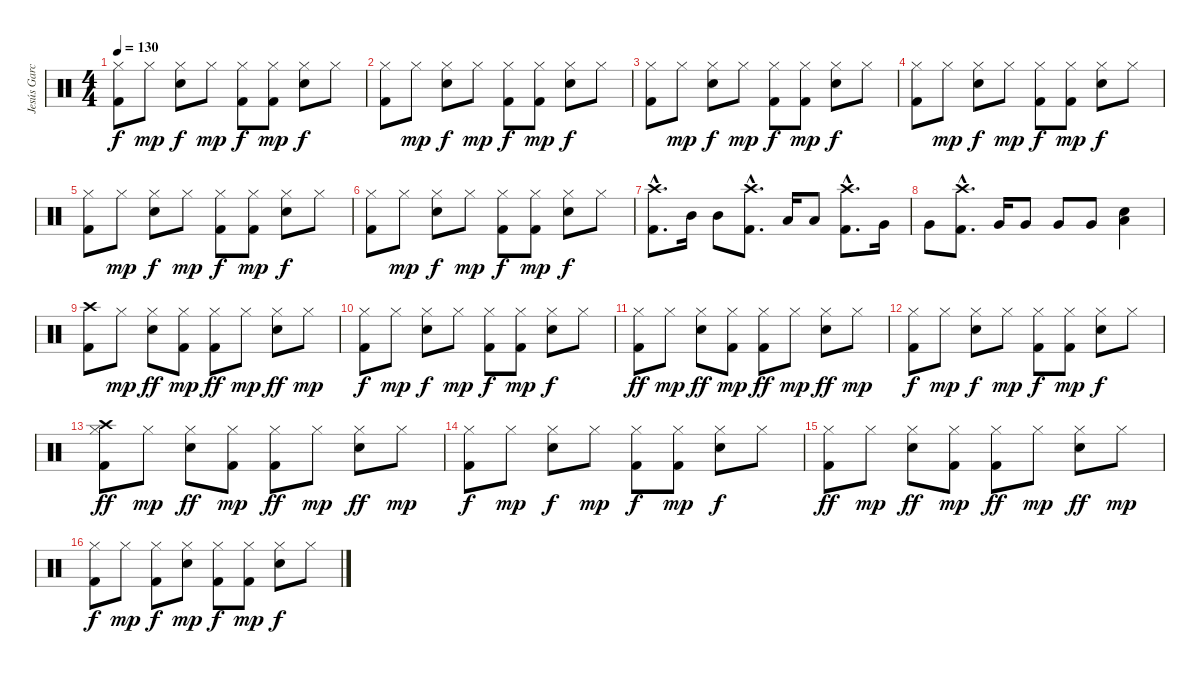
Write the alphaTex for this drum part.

\track ("Jesús García (batería)" "Jesús Garc") {instrument percussion}
\staff {score}
\articulation defaults
\ts (4 4)
\tempo 130
\clef neutral
\ks c
("Hi-Hat (closed)" "Kick (hit) 2").8{dy f} "Hi-Hat (closed)".8{dy mp} ("Hi-Hat (closed)" "Electric Snare (hit)").8{dy f} "Hi-Hat (closed)".8{dy mp} ("Hi-Hat (closed)" "Kick (hit) 2").8{dy f} ("Hi-Hat (closed)" "Kick (hit) 2").8{dy mp} ("Hi-Hat (closed)" "Electric Snare (hit)").8{dy f} "Hi-Hat (closed)".8 |
("Hi-Hat (closed)" "Kick (hit) 2").8 "Hi-Hat (closed)".8{dy mp} ("Hi-Hat (closed)" "Electric Snare (hit)").8{dy f} "Hi-Hat (closed)".8{dy mp} ("Hi-Hat (closed)" "Kick (hit) 2").8{dy f} ("Hi-Hat (closed)" "Kick (hit) 2").8{dy mp} ("Hi-Hat (closed)" "Electric Snare (hit)").8{dy f} "Hi-Hat (closed)".8 |
("Hi-Hat (closed)" "Kick (hit) 2").8 "Hi-Hat (closed)".8{dy mp} ("Hi-Hat (closed)" "Electric Snare (hit)").8{dy f} "Hi-Hat (closed)".8{dy mp} ("Hi-Hat (closed)" "Kick (hit) 2").8{dy f} ("Hi-Hat (closed)" "Kick (hit) 2").8{dy mp} ("Hi-Hat (closed)" "Electric Snare (hit)").8{dy f} "Hi-Hat (closed)".8 |
("Hi-Hat (closed)" "Kick (hit) 2").8 "Hi-Hat (closed)".8{dy mp} ("Hi-Hat (closed)" "Electric Snare (hit)").8{dy f} "Hi-Hat (closed)".8{dy mp} ("Hi-Hat (closed)" "Kick (hit) 2").8{dy f} ("Hi-Hat (closed)" "Kick (hit) 2").8{dy mp} ("Hi-Hat (closed)" "Electric Snare (hit)").8{dy f} "Hi-Hat (closed)".8 |
("Hi-Hat (closed)" "Kick (hit) 2").8 "Hi-Hat (closed)".8{dy mp} ("Hi-Hat (closed)" "Electric Snare (hit)").8{dy f} "Hi-Hat (closed)".8{dy mp} ("Hi-Hat (closed)" "Kick (hit) 2").8{dy f} ("Hi-Hat (closed)" "Kick (hit) 2").8{dy mp} ("Hi-Hat (closed)" "Electric Snare (hit)").8{dy f} "Hi-Hat (closed)".8 |
("Hi-Hat (closed)" "Kick (hit) 2").8 "Hi-Hat (closed)".8{dy mp} ("Hi-Hat (closed)" "Electric Snare (hit)").8{dy f} "Hi-Hat (closed)".8{dy mp} ("Hi-Hat (closed)" "Kick (hit) 2").8{dy f} ("Hi-Hat (closed)" "Kick (hit) 2").8{dy mp} ("Hi-Hat (closed)" "Electric Snare (hit)").8{dy f} "Hi-Hat (closed)".8 |
("Kick (hit) 2"{hac} "Crash high (hit)"{hac}).8{d} "Mid Tom (hit)".16 "Mid Tom (hit)".8 ("Kick (hit) 2"{hac} "Crash high (hit)"{hac}).8{d} "Low Tom (hit)".16 "Low Tom (hit)".8 ("Kick (hit) 2"{hac} "Crash high (hit)"{hac}).8{d} "Very Low Tom (hit)".16 |
"Very Low Tom (hit)".8 ("Kick (hit) 2"{hac} "Crash high (hit)"{hac}).8{d} "Very Low Tom (hit)".16 "Very Low Tom (hit)".8 "Very Low Tom (hit)".8 "Very Low Tom (hit)".8 ("Electric Snare (hit)" "Low Floor Tom (hit)").4 |
("Crash high (hit)" "Kick (hit) 2").8 "Hi-Hat (closed)".8{dy mp} ("Hi-Hat (closed)" "Electric Snare (hit)").8{dy ff} ("Hi-Hat (closed)" "Kick (hit) 2").8{dy mp} ("Hi-Hat (closed)" "Kick (hit) 2").8{dy ff} "Hi-Hat (closed)".8{dy mp} ("Hi-Hat (closed)" "Electric Snare (hit)").8{dy ff} "Hi-Hat (closed)".8{dy mp} |
("Hi-Hat (closed)" "Kick (hit) 2").8{dy f} "Hi-Hat (closed)".8{dy mp} ("Hi-Hat (closed)" "Electric Snare (hit)").8{dy f} "Hi-Hat (closed)".8{dy mp} ("Hi-Hat (closed)" "Kick (hit) 2").8{dy f} ("Hi-Hat (closed)" "Kick (hit) 2").8{dy mp} ("Hi-Hat (closed)" "Electric Snare (hit)").8{dy f} "Hi-Hat (closed)".8 |
("Hi-Hat (closed)" "Kick (hit) 2").8{dy ff} "Hi-Hat (closed)".8{dy mp} ("Hi-Hat (closed)" "Electric Snare (hit)").8{dy ff} ("Hi-Hat (closed)" "Kick (hit) 2").8{dy mp} ("Hi-Hat (closed)" "Kick (hit) 2").8{dy ff} "Hi-Hat (closed)".8{dy mp} ("Hi-Hat (closed)" "Electric Snare (hit)").8{dy ff} "Hi-Hat (closed)".8{dy mp} |
("Hi-Hat (closed)" "Kick (hit) 2").8{dy f} "Hi-Hat (closed)".8{dy mp} ("Hi-Hat (closed)" "Electric Snare (hit)").8{dy f} "Hi-Hat (closed)".8{dy mp} ("Hi-Hat (closed)" "Kick (hit) 2").8{dy f} ("Hi-Hat (closed)" "Kick (hit) 2").8{dy mp} ("Hi-Hat (closed)" "Electric Snare (hit)").8{dy f} "Hi-Hat (closed)".8 |
("Crash high (hit)" "Hi-Hat (closed)" "Kick (hit) 2").8{dy ff} "Hi-Hat (closed)".8{dy mp} ("Hi-Hat (closed)" "Electric Snare (hit)").8{dy ff} ("Hi-Hat (closed)" "Kick (hit) 2").8{dy mp} ("Hi-Hat (closed)" "Kick (hit) 2").8{dy ff} "Hi-Hat (closed)".8{dy mp} ("Hi-Hat (closed)" "Electric Snare (hit)").8{dy ff} "Hi-Hat (closed)".8{dy mp} |
("Hi-Hat (closed)" "Kick (hit) 2").8{dy f} "Hi-Hat (closed)".8{dy mp} ("Hi-Hat (closed)" "Electric Snare (hit)").8{dy f} "Hi-Hat (closed)".8{dy mp} ("Hi-Hat (closed)" "Kick (hit) 2").8{dy f} ("Hi-Hat (closed)" "Kick (hit) 2").8{dy mp} ("Hi-Hat (closed)" "Electric Snare (hit)").8{dy f} "Hi-Hat (closed)".8 |
("Hi-Hat (closed)" "Kick (hit) 2").8{dy ff} "Hi-Hat (closed)".8{dy mp} ("Hi-Hat (closed)" "Electric Snare (hit)").8{dy ff} ("Hi-Hat (closed)" "Kick (hit) 2").8{dy mp} ("Hi-Hat (closed)" "Kick (hit) 2").8{dy ff} "Hi-Hat (closed)".8{dy mp} ("Hi-Hat (closed)" "Electric Snare (hit)").8{dy ff} "Hi-Hat (closed)".8{dy mp} |
("Hi-Hat (closed)" "Kick (hit) 2").8{dy f} "Hi-Hat (closed)".8{dy mp} ("Hi-Hat (closed)" "Kick (hit) 2").8{dy f} ("Hi-Hat (closed)" "Electric Snare (hit)").8{dy mp} ("Hi-Hat (closed)" "Kick (hit) 2").8{dy f} ("Hi-Hat (closed)" "Kick (hit) 2").8{dy mp} ("Hi-Hat (closed)" "Electric Snare (hit)").8{dy f} "Hi-Hat (closed)".8
